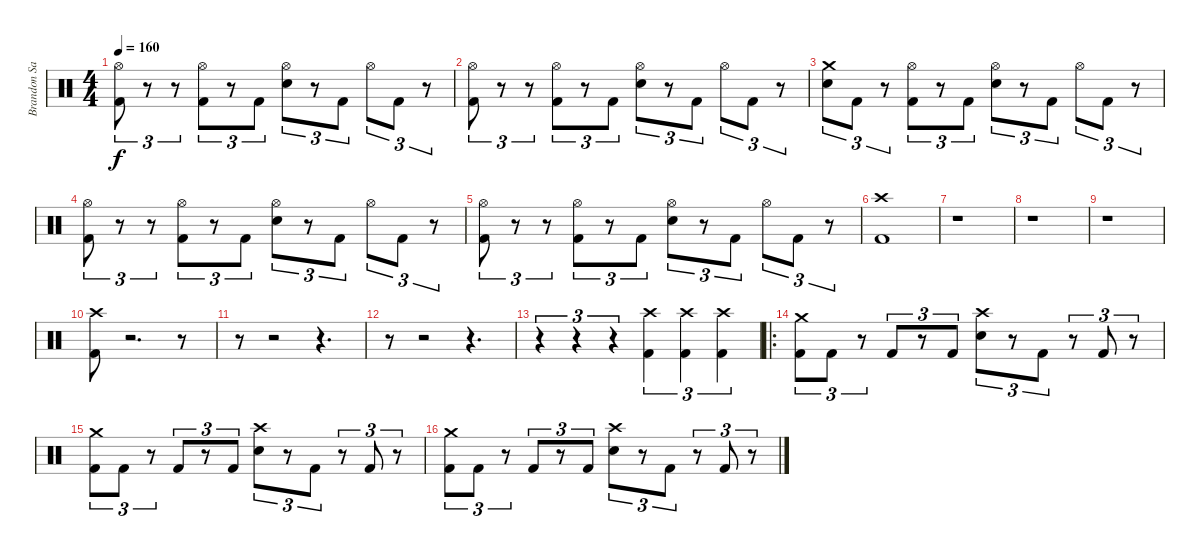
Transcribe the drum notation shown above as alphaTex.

\track ("Brandon Saller" "Brandon Sa") {instrument percussion}
\staff {score}
\articulation defaults
\ts (4 4)
\tempo 160
\clef neutral
\ks c
("Hi-Hat (open)" "Kick (hit) 2").8{tu (3 2) dy f} r.8{tu (3 2)} r.8{tu (3 2)} ("Hi-Hat (open)" "Kick (hit) 2").8{tu (3 2)} r.8{tu (3 2)} "Kick (hit) 2".8{tu (3 2)} ("Hi-Hat (open)" "Snare (hit) 2").8{tu (3 2)} r.8{tu (3 2)} "Kick (hit) 2".8{tu (3 2)} "Hi-Hat (open)".8{tu (3 2)} "Kick (hit) 2".8{tu (3 2)} r.8{tu (3 2)} |
("Hi-Hat (open)" "Kick (hit) 2").8{tu (3 2)} r.8{tu (3 2)} r.8{tu (3 2)} ("Hi-Hat (open)" "Kick (hit) 2").8{tu (3 2)} r.8{tu (3 2)} "Kick (hit) 2".8{tu (3 2)} ("Hi-Hat (open)" "Snare (hit) 2").8{tu (3 2)} r.8{tu (3 2)} "Kick (hit) 2".8{tu (3 2)} "Hi-Hat (open)".8{tu (3 2)} "Kick (hit) 2".8{tu (3 2)} r.8{tu (3 2)} |
("Crash medium (hit)" "Snare (hit) 2").8{tu (3 2)} "Kick (hit) 2".8{tu (3 2)} r.8{tu (3 2)} ("Hi-Hat (open)" "Kick (hit) 2").8{tu (3 2)} r.8{tu (3 2)} "Kick (hit) 2".8{tu (3 2)} ("Hi-Hat (open)" "Snare (hit) 2").8{tu (3 2)} r.8{tu (3 2)} "Kick (hit) 2".8{tu (3 2)} "Hi-Hat (open)".8{tu (3 2)} "Kick (hit) 2".8{tu (3 2)} r.8{tu (3 2)} |
("Hi-Hat (open)" "Kick (hit) 2").8{tu (3 2)} r.8{tu (3 2)} r.8{tu (3 2)} ("Hi-Hat (open)" "Kick (hit) 2").8{tu (3 2)} r.8{tu (3 2)} "Kick (hit) 2".8{tu (3 2)} ("Hi-Hat (open)" "Snare (hit) 2").8{tu (3 2)} r.8{tu (3 2)} "Kick (hit) 2".8{tu (3 2)} "Hi-Hat (open)".8{tu (3 2)} "Kick (hit) 2".8{tu (3 2)} r.8{tu (3 2)} |
("Hi-Hat (open)" "Kick (hit) 2").8{tu (3 2)} r.8{tu (3 2)} r.8{tu (3 2)} ("Hi-Hat (open)" "Kick (hit) 2").8{tu (3 2)} r.8{tu (3 2)} "Kick (hit) 2".8{tu (3 2)} ("Hi-Hat (open)" "Snare (hit) 2").8{tu (3 2)} r.8{tu (3 2)} "Kick (hit) 2".8{tu (3 2)} "Hi-Hat (open)".8{tu (3 2)} "Kick (hit) 2".8{tu (3 2)} r.8{tu (3 2)} |
("Crash high (hit)" "Kick (hit) 2").1 |
r.1 |
r.1 |
r.1 |
("Crash high (hit)" "Kick (hit) 2").8 r.2{d} r.8 |
r.8 r.2 r.4{d} |
r.8 r.2 r.4{d} |
r.4{tu (3 2)} r.4{tu (3 2)} r.4{tu (3 2)} ("Crash high (hit)" "Kick (hit) 2").4{tu (3 2)} ("Crash high (hit)" "Kick (hit) 2").4{tu (3 2)} ("Crash high (hit)" "Kick (hit) 2").4{tu (3 2)} |
\ro
("Crash medium (hit)" "Kick (hit) 2").8{tu (3 2)} "Kick (hit) 2".8{tu (3 2)} r.8{tu (3 2)} "Kick (hit) 2".8{tu (3 2)} r.8{tu (3 2)} "Kick (hit) 2".8{tu (3 2)} ("Crash high (hit)" "Snare (hit) 2").8{tu (3 2)} r.8{tu (3 2)} "Kick (hit) 2".8{tu (3 2)} r.8{tu (3 2)} "Kick (hit) 2".8{tu (3 2)} r.8{tu (3 2)} |
("Crash medium (hit)" "Kick (hit) 2").8{tu (3 2)} "Kick (hit) 2".8{tu (3 2)} r.8{tu (3 2)} "Kick (hit) 2".8{tu (3 2)} r.8{tu (3 2)} "Kick (hit) 2".8{tu (3 2)} ("Crash high (hit)" "Snare (hit) 2").8{tu (3 2)} r.8{tu (3 2)} "Kick (hit) 2".8{tu (3 2)} r.8{tu (3 2)} "Kick (hit) 2".8{tu (3 2)} r.8{tu (3 2)} |
("Crash medium (hit)" "Kick (hit) 2").8{tu (3 2)} "Kick (hit) 2".8{tu (3 2)} r.8{tu (3 2)} "Kick (hit) 2".8{tu (3 2)} r.8{tu (3 2)} "Kick (hit) 2".8{tu (3 2)} ("Crash high (hit)" "Snare (hit) 2").8{tu (3 2)} r.8{tu (3 2)} "Kick (hit) 2".8{tu (3 2)} r.8{tu (3 2)} "Kick (hit) 2".8{tu (3 2)} r.8{tu (3 2)}
